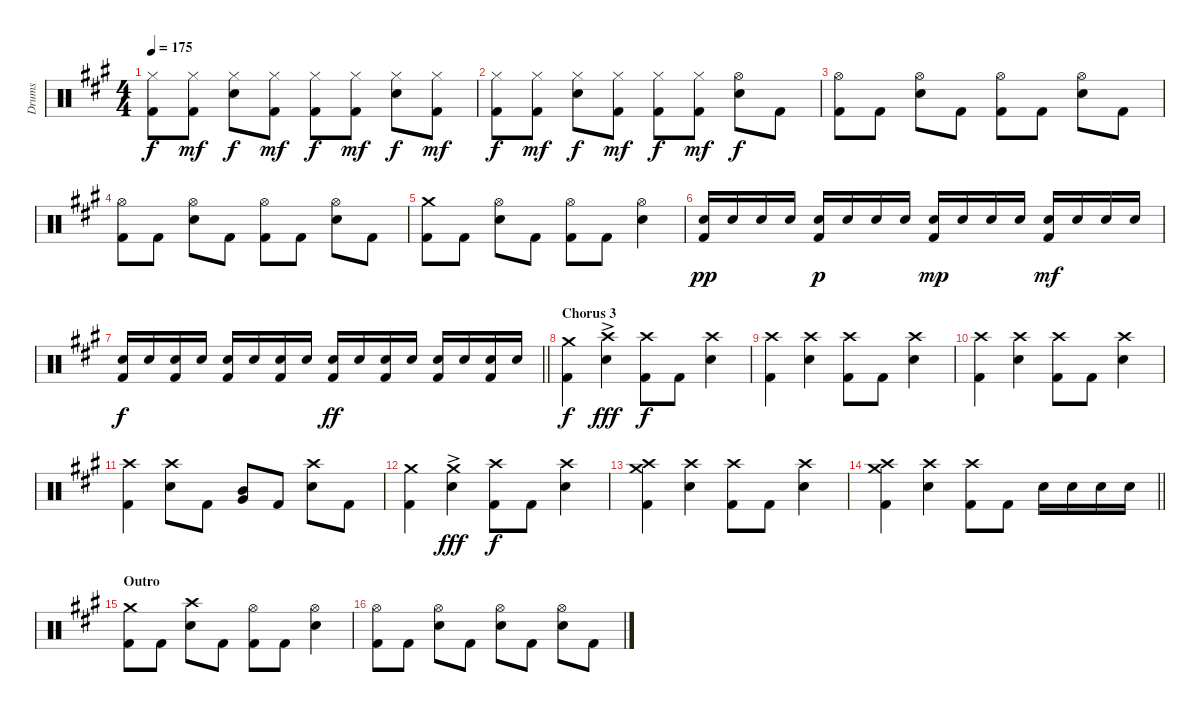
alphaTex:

\track ("Drums" "Drums") {instrument percussion}
\staff {score}
\articulation defaults
\ts (4 4)
\tempo 175
\clef neutral
\ks f#minor
("Hi-Hat (closed)" "Kick (hit) 2").8{dy f} ("Hi-Hat (closed)" "Kick (hit) 2").8{dy mf} ("Hi-Hat (closed)" "Electric Snare (hit)").8{dy f} ("Hi-Hat (closed)" "Kick (hit) 2").8{dy mf} ("Hi-Hat (closed)" "Kick (hit) 2").8{dy f} ("Hi-Hat (closed)" "Kick (hit) 2").8{dy mf} ("Hi-Hat (closed)" "Electric Snare (hit)").8{dy f} ("Hi-Hat (closed)" "Kick (hit) 2").8{dy mf} |
("Hi-Hat (closed)" "Kick (hit) 2").8{dy f} ("Hi-Hat (closed)" "Kick (hit) 2").8{dy mf} ("Hi-Hat (closed)" "Electric Snare (hit)").8{dy f} ("Hi-Hat (closed)" "Kick (hit) 2").8{dy mf} ("Hi-Hat (closed)" "Kick (hit) 2").8{dy f} ("Hi-Hat (closed)" "Kick (hit) 2").8{dy mf} ("Hi-Hat (open)" "Electric Snare (hit)").8{dy f} "Kick (hit) 2".8 |
("Hi-Hat (open)" "Kick (hit) 2").8 "Kick (hit) 2".8 ("Hi-Hat (open)" "Electric Snare (hit)").8 "Kick (hit) 2".8 ("Hi-Hat (open)" "Kick (hit) 2").8 "Kick (hit) 2".8 ("Hi-Hat (open)" "Electric Snare (hit)").8 "Kick (hit) 2".8 |
("Hi-Hat (open)" "Kick (hit) 2").8 "Kick (hit) 2".8 ("Hi-Hat (open)" "Electric Snare (hit)").8 "Kick (hit) 2".8 ("Hi-Hat (open)" "Kick (hit) 2").8 "Kick (hit) 2".8 ("Hi-Hat (open)" "Electric Snare (hit)").8 "Kick (hit) 2".8 |
("Crash medium (hit)" "Kick (hit) 2").8 "Kick (hit) 2".8 ("Hi-Hat (open)" "Electric Snare (hit)").8 "Kick (hit) 2".8 ("Hi-Hat (open)" "Kick (hit) 2").8 "Kick (hit) 2".8 ("Hi-Hat (open)" "Electric Snare (hit)").4 |
("Electric Snare (hit)" "Kick (hit) 2").16{dy pp} "Electric Snare (hit)".16 "Electric Snare (hit)".16 "Electric Snare (hit)".16 ("Electric Snare (hit)" "Kick (hit) 2").16{dy p} "Electric Snare (hit)".16 "Electric Snare (hit)".16 "Electric Snare (hit)".16 ("Electric Snare (hit)" "Kick (hit) 2").16{dy mp} "Electric Snare (hit)".16 "Electric Snare (hit)".16 "Electric Snare (hit)".16 ("Electric Snare (hit)" "Kick (hit) 2").16{dy mf} "Electric Snare (hit)".16 "Electric Snare (hit)".16 "Electric Snare (hit)".16 |
\barLineRight lightlight
("Electric Snare (hit)" "Kick (hit) 2").16{dy f} "Electric Snare (hit)".16 ("Electric Snare (hit)" "Kick (hit) 2").16 "Electric Snare (hit)".16 ("Electric Snare (hit)" "Kick (hit) 2").16 "Electric Snare (hit)".16 ("Electric Snare (hit)" "Kick (hit) 2").16 "Electric Snare (hit)".16 ("Electric Snare (hit)" "Kick (hit) 2").16{dy ff} "Electric Snare (hit)".16 ("Electric Snare (hit)" "Kick (hit) 2").16 "Electric Snare (hit)".16 ("Electric Snare (hit)" "Kick (hit) 2").16 "Electric Snare (hit)".16 ("Electric Snare (hit)" "Kick (hit) 2").16 "Electric Snare (hit)".16 |
\section ("" "Chorus 3")
("Crash medium (hit)" "Kick (hit) 2").4{dy f} ("Crash high (hit)"{ac} "Electric Snare (hit)").4{dy fff} ("Crash high (hit)" "Kick (hit) 2").8{dy f} "Kick (hit) 2".8 ("Crash high (hit)" "Electric Snare (hit)").4 |
("Crash high (hit)" "Kick (hit) 2").4 ("Crash high (hit)" "Electric Snare (hit)").4 ("Crash high (hit)" "Kick (hit) 2").8 "Kick (hit) 2".8 ("Crash high (hit)" "Electric Snare (hit)").4 |
("Crash high (hit)" "Kick (hit) 2").4 ("Crash high (hit)" "Electric Snare (hit)").4 ("Crash high (hit)" "Kick (hit) 2").8 "Kick (hit) 2".8 ("Crash high (hit)" "Electric Snare (hit)").4 |
("Crash high (hit)" "Kick (hit) 2").4 ("Crash high (hit)" "Electric Snare (hit)").8 "Kick (hit) 2".8 ("Mid Tom (hit)" "Very Low Tom (hit)").8 "Kick (hit) 2".8 ("Crash high (hit)" "Electric Snare (hit)").8 "Kick (hit) 2".8 |
("Crash medium (hit)" "Kick (hit) 2").4 ("Crash medium (hit)"{ac} "Electric Snare (hit)").4{dy fff} ("Crash high (hit)" "Kick (hit) 2").8{dy f} "Kick (hit) 2".8 ("Crash high (hit)" "Electric Snare (hit)").4 |
("Crash high (hit)" "Crash medium (hit)" "Kick (hit) 2").4 ("Crash high (hit)" "Electric Snare (hit)").4 ("Crash high (hit)" "Kick (hit) 2").8 "Kick (hit) 2".8 ("Crash high (hit)" "Electric Snare (hit)").4 |
\barLineRight lightlight
("Crash high (hit)" "Crash medium (hit)" "Kick (hit) 2").4 ("Crash high (hit)" "Electric Snare (hit)").4 ("Crash high (hit)" "Kick (hit) 2").8 "Kick (hit) 2".8 "Electric Snare (hit)".16 "Electric Snare (hit)".16 "Electric Snare (hit)".16 "Electric Snare (hit)".16 |
\section ("" "Outro")
("Crash medium (hit)" "Kick (hit) 2").8 "Kick (hit) 2".8 ("Crash high (hit)" "Electric Snare (hit)").8 "Kick (hit) 2".8 ("Hi-Hat (open)" "Kick (hit) 2").8 "Kick (hit) 2".8 ("Hi-Hat (open)" "Electric Snare (hit)").4 |
("Hi-Hat (open)" "Kick (hit) 2").8 "Kick (hit) 2".8 ("Hi-Hat (open)" "Electric Snare (hit)").8 "Kick (hit) 2".8 ("Hi-Hat (open)" "Electric Snare (hit)").8 "Kick (hit) 2".8 ("Hi-Hat (open)" "Electric Snare (hit)").8 "Kick (hit) 2".8
